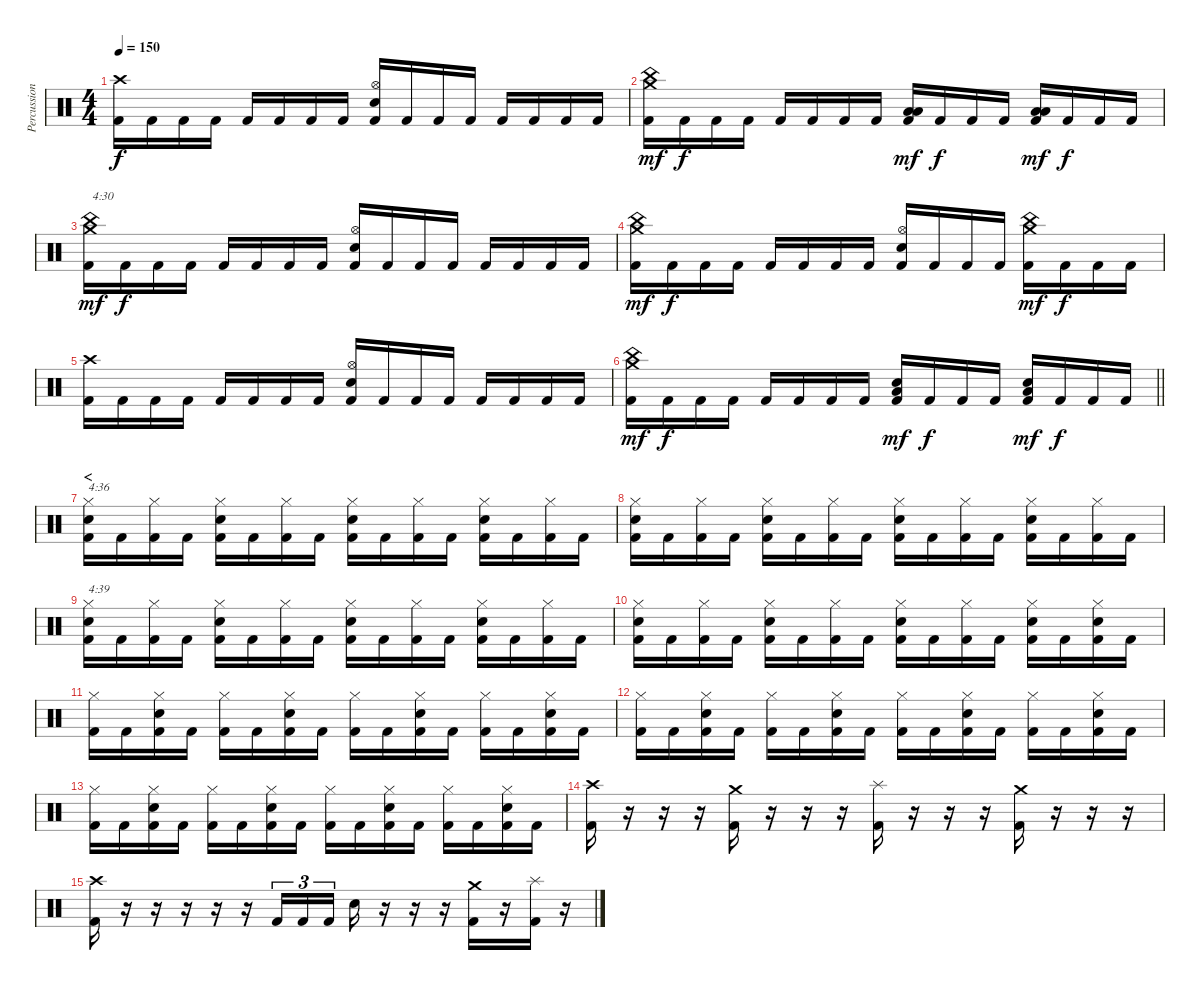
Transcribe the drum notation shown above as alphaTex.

\track ("Percussion" "Percussion") {instrument percussion}
\staff {score}
\articulation defaults
\ts (4 4)
\tempo 150
\clef neutral
\ks c
("Crash high (hit)" "Kick (hit) 2").16{dy f} "Kick (hit) 2".16 "Kick (hit) 2".16 "Kick (hit) 2".16 "Kick (hit) 2".16 "Kick (hit) 2".16 "Kick (hit) 2".16 "Kick (hit) 2".16 ("Hi-Hat (open)" "Electric Snare (hit)" "Kick (hit) 2").16 "Kick (hit) 2".16 "Kick (hit) 2".16 "Kick (hit) 2".16 "Kick (hit) 2".16 "Kick (hit) 2".16 "Kick (hit) 2".16 "Kick (hit) 2".16 |
("Crash medium (hit)" "China (hit)" "Kick (hit) 2").16{dy mf} "Kick (hit) 2".16{dy f} "Kick (hit) 2".16 "Kick (hit) 2".16 "Kick (hit) 2".16 "Kick (hit) 2".16 "Kick (hit) 2".16 "Kick (hit) 2".16 ("Low Tom (hit)" "Low Floor Tom (hit)" "Kick (hit) 2").16{dy mf} "Kick (hit) 2".16{dy f} "Kick (hit) 2".16 "Kick (hit) 2".16 ("Low Tom (hit)" "Low Floor Tom (hit)" "Kick (hit) 2").16{dy mf} "Kick (hit) 2".16{dy f} "Kick (hit) 2".16 "Kick (hit) 2".16 |
("Crash medium (hit)" "China (hit)" "Kick (hit) 2").16{txt "4:30" dy mf} "Kick (hit) 2".16{dy f} "Kick (hit) 2".16 "Kick (hit) 2".16 "Kick (hit) 2".16 "Kick (hit) 2".16 "Kick (hit) 2".16 "Kick (hit) 2".16 ("Hi-Hat (open)" "Electric Snare (hit)" "Kick (hit) 2").16 "Kick (hit) 2".16 "Kick (hit) 2".16 "Kick (hit) 2".16 "Kick (hit) 2".16 "Kick (hit) 2".16 "Kick (hit) 2".16 "Kick (hit) 2".16 |
("Crash medium (hit)" "China (hit)" "Kick (hit) 2").16{dy mf} "Kick (hit) 2".16{dy f} "Kick (hit) 2".16 "Kick (hit) 2".16 "Kick (hit) 2".16 "Kick (hit) 2".16 "Kick (hit) 2".16 "Kick (hit) 2".16 ("Hi-Hat (open)" "Electric Snare (hit)" "Kick (hit) 2").16 "Kick (hit) 2".16 "Kick (hit) 2".16 "Kick (hit) 2".16 ("Crash medium (hit)" "China (hit)" "Kick (hit) 2").16{dy mf} "Kick (hit) 2".16{dy f} "Kick (hit) 2".16 "Kick (hit) 2".16 |
("Crash high (hit)" "Kick (hit) 2").16 "Kick (hit) 2".16 "Kick (hit) 2".16 "Kick (hit) 2".16 "Kick (hit) 2".16 "Kick (hit) 2".16 "Kick (hit) 2".16 "Kick (hit) 2".16 ("Hi-Hat (open)" "Electric Snare (hit)" "Kick (hit) 2").16 "Kick (hit) 2".16 "Kick (hit) 2".16 "Kick (hit) 2".16 "Kick (hit) 2".16 "Kick (hit) 2".16 "Kick (hit) 2".16 "Kick (hit) 2".16 |
\barLineRight lightlight
("Crash medium (hit)" "China (hit)" "Kick (hit) 2").16{dy mf} "Kick (hit) 2".16{dy f} "Kick (hit) 2".16 "Kick (hit) 2".16 "Kick (hit) 2".16 "Kick (hit) 2".16 "Kick (hit) 2".16 "Kick (hit) 2".16 ("Low Floor Tom (hit)" "Electric Snare (hit)" "Kick (hit) 2").16{dy mf} "Kick (hit) 2".16{dy f} "Kick (hit) 2".16 "Kick (hit) 2".16 ("Low Floor Tom (hit)" "Electric Snare (hit)" "Kick (hit) 2").16{dy mf} "Kick (hit) 2".16{dy f} "Kick (hit) 2".16 "Kick (hit) 2".16 |
\section ("" "<")
("Hi-Hat (closed)" "Electric Snare (hit)" "Kick (hit) 2").16{txt "4:36"} "Kick (hit) 2".16 ("Hi-Hat (closed)" "Kick (hit) 2").16 "Kick (hit) 2".16 ("Hi-Hat (closed)" "Electric Snare (hit)" "Kick (hit) 2").16 "Kick (hit) 2".16 ("Hi-Hat (closed)" "Kick (hit) 2").16 "Kick (hit) 2".16 ("Hi-Hat (closed)" "Electric Snare (hit)" "Kick (hit) 2").16 "Kick (hit) 2".16 ("Hi-Hat (closed)" "Kick (hit) 2").16 "Kick (hit) 2".16 ("Hi-Hat (closed)" "Electric Snare (hit)" "Kick (hit) 2").16 "Kick (hit) 2".16 ("Hi-Hat (closed)" "Kick (hit) 2").16 "Kick (hit) 2".16 |
("Hi-Hat (closed)" "Electric Snare (hit)" "Kick (hit) 2").16 "Kick (hit) 2".16 ("Hi-Hat (closed)" "Kick (hit) 2").16 "Kick (hit) 2".16 ("Hi-Hat (closed)" "Electric Snare (hit)" "Kick (hit) 2").16 "Kick (hit) 2".16 ("Hi-Hat (closed)" "Kick (hit) 2").16 "Kick (hit) 2".16 ("Hi-Hat (closed)" "Electric Snare (hit)" "Kick (hit) 2").16 "Kick (hit) 2".16 ("Hi-Hat (closed)" "Kick (hit) 2").16 "Kick (hit) 2".16 ("Hi-Hat (closed)" "Electric Snare (hit)" "Kick (hit) 2").16 "Kick (hit) 2".16 ("Hi-Hat (closed)" "Kick (hit) 2").16 "Kick (hit) 2".16 |
("Hi-Hat (closed)" "Electric Snare (hit)" "Kick (hit) 2").16{txt "4:39"} "Kick (hit) 2".16 ("Hi-Hat (closed)" "Kick (hit) 2").16 "Kick (hit) 2".16 ("Hi-Hat (closed)" "Electric Snare (hit)" "Kick (hit) 2").16 "Kick (hit) 2".16 ("Hi-Hat (closed)" "Kick (hit) 2").16 "Kick (hit) 2".16 ("Hi-Hat (closed)" "Electric Snare (hit)" "Kick (hit) 2").16 "Kick (hit) 2".16 ("Hi-Hat (closed)" "Kick (hit) 2").16 "Kick (hit) 2".16 ("Hi-Hat (closed)" "Electric Snare (hit)" "Kick (hit) 2").16 "Kick (hit) 2".16 ("Hi-Hat (closed)" "Kick (hit) 2").16 "Kick (hit) 2".16 |
("Hi-Hat (closed)" "Electric Snare (hit)" "Kick (hit) 2").16 "Kick (hit) 2".16 ("Hi-Hat (closed)" "Kick (hit) 2").16 "Kick (hit) 2".16 ("Hi-Hat (closed)" "Electric Snare (hit)" "Kick (hit) 2").16 "Kick (hit) 2".16 ("Hi-Hat (closed)" "Kick (hit) 2").16 "Kick (hit) 2".16 ("Hi-Hat (closed)" "Electric Snare (hit)" "Kick (hit) 2").16 "Kick (hit) 2".16 ("Hi-Hat (closed)" "Kick (hit) 2").16 "Kick (hit) 2".16 ("Hi-Hat (closed)" "Electric Snare (hit)" "Kick (hit) 2").16 "Kick (hit) 2".16 ("Hi-Hat (closed)" "Electric Snare (hit)" "Kick (hit) 2").16 "Kick (hit) 2".16 |
("Hi-Hat (closed)" "Kick (hit) 2").16 "Kick (hit) 2".16 ("Hi-Hat (closed)" "Electric Snare (hit)" "Kick (hit) 2").16 "Kick (hit) 2".16 ("Hi-Hat (closed)" "Kick (hit) 2").16 "Kick (hit) 2".16 ("Hi-Hat (closed)" "Electric Snare (hit)" "Kick (hit) 2").16 "Kick (hit) 2".16 ("Hi-Hat (closed)" "Kick (hit) 2").16 "Kick (hit) 2".16 ("Hi-Hat (closed)" "Electric Snare (hit)" "Kick (hit) 2").16 "Kick (hit) 2".16 ("Hi-Hat (closed)" "Kick (hit) 2").16 "Kick (hit) 2".16 ("Hi-Hat (closed)" "Electric Snare (hit)" "Kick (hit) 2").16 "Kick (hit) 2".16 |
("Hi-Hat (closed)" "Kick (hit) 2").16 "Kick (hit) 2".16 ("Hi-Hat (closed)" "Electric Snare (hit)" "Kick (hit) 2").16 "Kick (hit) 2".16 ("Hi-Hat (closed)" "Kick (hit) 2").16 "Kick (hit) 2".16 ("Hi-Hat (closed)" "Electric Snare (hit)" "Kick (hit) 2").16 "Kick (hit) 2".16 ("Hi-Hat (closed)" "Kick (hit) 2").16 "Kick (hit) 2".16 ("Hi-Hat (closed)" "Electric Snare (hit)" "Kick (hit) 2").16 "Kick (hit) 2".16 ("Hi-Hat (closed)" "Kick (hit) 2").16 "Kick (hit) 2".16 ("Hi-Hat (closed)" "Electric Snare (hit)" "Kick (hit) 2").16 "Kick (hit) 2".16 |
("Hi-Hat (closed)" "Kick (hit) 2").16 "Kick (hit) 2".16 ("Hi-Hat (closed)" "Electric Snare (hit)" "Kick (hit) 2").16 "Kick (hit) 2".16 ("Hi-Hat (closed)" "Kick (hit) 2").16 "Kick (hit) 2".16 ("Hi-Hat (closed)" "Electric Snare (hit)" "Kick (hit) 2").16 "Kick (hit) 2".16 ("Hi-Hat (closed)" "Kick (hit) 2").16 "Kick (hit) 2".16 ("Hi-Hat (closed)" "Electric Snare (hit)" "Kick (hit) 2").16 "Kick (hit) 2".16 ("Hi-Hat (closed)" "Kick (hit) 2").16 "Kick (hit) 2".16 ("Hi-Hat (closed)" "Electric Snare (hit)" "Kick (hit) 2").16 "Kick (hit) 2".16 |
("Crash high (hit)" "Kick (hit) 2").16 r.16 r.16 r.16 ("Crash medium (hit)" "Kick (hit) 2").16 r.16 r.16 r.16 ("Splash (hit)" "Kick (hit) 2").16 r.16 r.16 r.16 ("Crash medium (hit)" "Kick (hit) 2").16 r.16 r.16 r.16 |
("Crash high (hit)" "Kick (hit) 2").16 r.16 r.16 r.16 r.16 r.16 "Kick (hit) 2".16{tu (3 2)} "Kick (hit) 2".16{tu (3 2)} "Kick (hit) 2".16{tu (3 2)} "Electric Snare (hit)".16 r.16 r.16 r.16 ("Crash medium (hit)" "Kick (hit) 2").16 r.16 ("Splash (hit)" "Kick (hit) 2").16 r.16
